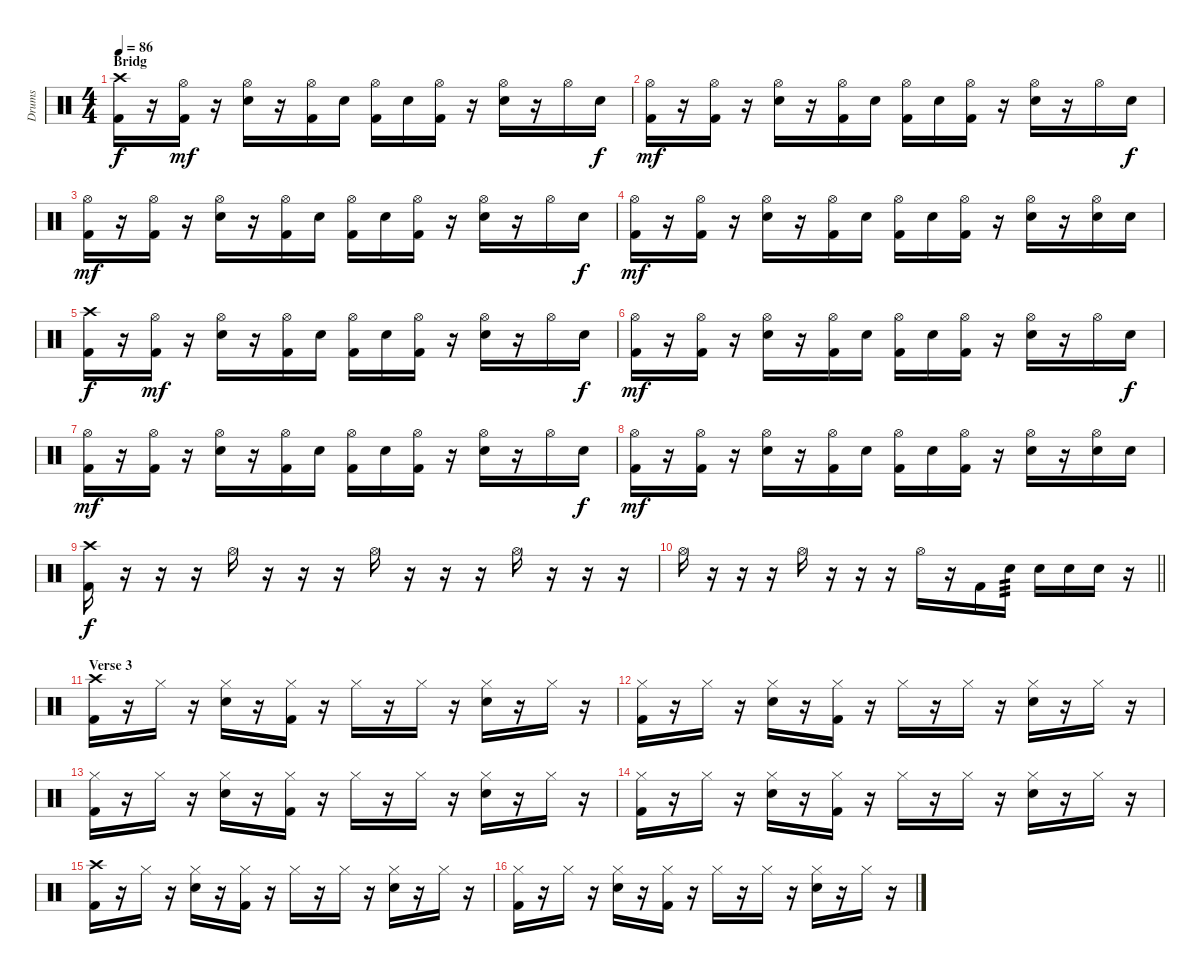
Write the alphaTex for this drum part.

\track ("Drums" "Drums") {instrument percussion}
\staff {score}
\articulation defaults
\ts (4 4)
\section ("" "Bridg")
\tempo 86
\clef neutral
\ks c
("Crash high (hit)" "Kick (hit) 2").16{dy f} r.16 ("Hi-Hat (open)" "Kick (hit) 2").16{dy mf} r.16 ("Hi-Hat (open)" "Electric Snare (hit)").16 r.16 ("Hi-Hat (open)" "Kick (hit) 2").16 "Electric Snare (hit)".16 ("Hi-Hat (open)" "Kick (hit) 2").16 "Electric Snare (hit)".16 ("Hi-Hat (open)" "Kick (hit) 2").16 r.16 ("Hi-Hat (open)" "Electric Snare (hit)").16 r.16 "Hi-Hat (open)".16 "Electric Snare (hit)".16{dy f} |
("Hi-Hat (open)" "Kick (hit) 2").16{dy mf} r.16 ("Hi-Hat (open)" "Kick (hit) 2").16 r.16 ("Hi-Hat (open)" "Electric Snare (hit)").16 r.16 ("Hi-Hat (open)" "Kick (hit) 2").16 "Electric Snare (hit)".16 ("Hi-Hat (open)" "Kick (hit) 2").16 "Electric Snare (hit)".16 ("Hi-Hat (open)" "Kick (hit) 2").16 r.16 ("Hi-Hat (open)" "Electric Snare (hit)").16 r.16 "Hi-Hat (open)".16 "Electric Snare (hit)".16{dy f} |
("Hi-Hat (open)" "Kick (hit) 2").16{dy mf} r.16 ("Hi-Hat (open)" "Kick (hit) 2").16 r.16 ("Hi-Hat (open)" "Electric Snare (hit)").16 r.16 ("Hi-Hat (open)" "Kick (hit) 2").16 "Electric Snare (hit)".16 ("Hi-Hat (open)" "Kick (hit) 2").16 "Electric Snare (hit)".16 ("Hi-Hat (open)" "Kick (hit) 2").16 r.16 ("Hi-Hat (open)" "Electric Snare (hit)").16 r.16 "Hi-Hat (open)".16 "Electric Snare (hit)".16{dy f} |
("Hi-Hat (open)" "Kick (hit) 2").16{dy mf} r.16 ("Hi-Hat (open)" "Kick (hit) 2").16 r.16 ("Hi-Hat (open)" "Electric Snare (hit)").16 r.16 ("Hi-Hat (open)" "Kick (hit) 2").16 "Electric Snare (hit)".16 ("Hi-Hat (open)" "Kick (hit) 2").16 "Electric Snare (hit)".16 ("Hi-Hat (open)" "Kick (hit) 2").16 r.16 ("Hi-Hat (open)" "Electric Snare (hit)").16 r.16 ("Hi-Hat (open)" "Electric Snare (hit)").16 "Electric Snare (hit)".16 |
("Crash high (hit)" "Kick (hit) 2").16{dy f} r.16 ("Hi-Hat (open)" "Kick (hit) 2").16{dy mf} r.16 ("Hi-Hat (open)" "Electric Snare (hit)").16 r.16 ("Hi-Hat (open)" "Kick (hit) 2").16 "Electric Snare (hit)".16 ("Hi-Hat (open)" "Kick (hit) 2").16 "Electric Snare (hit)".16 ("Hi-Hat (open)" "Kick (hit) 2").16 r.16 ("Hi-Hat (open)" "Electric Snare (hit)").16 r.16 "Hi-Hat (open)".16 "Electric Snare (hit)".16{dy f} |
("Hi-Hat (open)" "Kick (hit) 2").16{dy mf} r.16 ("Hi-Hat (open)" "Kick (hit) 2").16 r.16 ("Hi-Hat (open)" "Electric Snare (hit)").16 r.16 ("Hi-Hat (open)" "Kick (hit) 2").16 "Electric Snare (hit)".16 ("Hi-Hat (open)" "Kick (hit) 2").16 "Electric Snare (hit)".16 ("Hi-Hat (open)" "Kick (hit) 2").16 r.16 ("Hi-Hat (open)" "Electric Snare (hit)").16 r.16 "Hi-Hat (open)".16 "Electric Snare (hit)".16{dy f} |
("Hi-Hat (open)" "Kick (hit) 2").16{dy mf} r.16 ("Hi-Hat (open)" "Kick (hit) 2").16 r.16 ("Hi-Hat (open)" "Electric Snare (hit)").16 r.16 ("Hi-Hat (open)" "Kick (hit) 2").16 "Electric Snare (hit)".16 ("Hi-Hat (open)" "Kick (hit) 2").16 "Electric Snare (hit)".16 ("Hi-Hat (open)" "Kick (hit) 2").16 r.16 ("Hi-Hat (open)" "Electric Snare (hit)").16 r.16 "Hi-Hat (open)".16 "Electric Snare (hit)".16{dy f} |
("Hi-Hat (open)" "Kick (hit) 2").16{dy mf} r.16 ("Hi-Hat (open)" "Kick (hit) 2").16 r.16 ("Hi-Hat (open)" "Electric Snare (hit)").16 r.16 ("Hi-Hat (open)" "Kick (hit) 2").16 "Electric Snare (hit)".16 ("Hi-Hat (open)" "Kick (hit) 2").16 "Electric Snare (hit)".16 ("Hi-Hat (open)" "Kick (hit) 2").16 r.16 ("Hi-Hat (open)" "Electric Snare (hit)").16 r.16 ("Hi-Hat (open)" "Electric Snare (hit)").16 "Electric Snare (hit)".16 |
("Crash high (hit)" "Kick (hit) 2").16{dy f} r.16 r.16 r.16 "Hi-Hat (open)".16 r.16 r.16 r.16 "Hi-Hat (open)".16 r.16 r.16 r.16 "Hi-Hat (open)".16 r.16 r.16 r.16 |
\barLineRight lightlight "Hi-Hat (open)".16
r.16 r.16 r.16 "Hi-Hat (open)".16 r.16 r.16 r.16 "Hi-Hat (open)".16 r.16 "Kick (hit) 2".16 "Electric Snare (hit)".16{tp 3} "Electric Snare (hit)".16 "Electric Snare (hit)".16 "Electric Snare (hit)".16 r.16 |
\section ("" "Verse 3")
("Crash high (hit)" "Kick (hit) 2").16 r.16 "Hi-Hat (closed)".16 r.16 ("Hi-Hat (closed)" "Electric Snare (hit)").16 r.16 ("Hi-Hat (closed)" "Kick (hit) 2").16 r.16 "Hi-Hat (closed)".16 r.16 "Hi-Hat (closed)".16 r.16 ("Hi-Hat (closed)" "Electric Snare (hit)").16 r.16 "Hi-Hat (closed)".16 r.16 |
("Hi-Hat (closed)" "Kick (hit) 2").16 r.16 "Hi-Hat (closed)".16 r.16 ("Hi-Hat (closed)" "Electric Snare (hit)").16 r.16 ("Hi-Hat (closed)" "Kick (hit) 2").16 r.16 "Hi-Hat (closed)".16 r.16 "Hi-Hat (closed)".16 r.16 ("Hi-Hat (closed)" "Electric Snare (hit)").16 r.16 "Hi-Hat (closed)".16 r.16 |
("Hi-Hat (closed)" "Kick (hit) 2").16 r.16 "Hi-Hat (closed)".16 r.16 ("Hi-Hat (closed)" "Electric Snare (hit)").16 r.16 ("Hi-Hat (closed)" "Kick (hit) 2").16 r.16 "Hi-Hat (closed)".16 r.16 "Hi-Hat (closed)".16 r.16 ("Hi-Hat (closed)" "Electric Snare (hit)").16 r.16 "Hi-Hat (closed)".16 r.16 |
("Hi-Hat (closed)" "Kick (hit) 2").16 r.16 "Hi-Hat (closed)".16 r.16 ("Hi-Hat (closed)" "Electric Snare (hit)").16 r.16 ("Hi-Hat (closed)" "Kick (hit) 2").16 r.16 "Hi-Hat (closed)".16 r.16 "Hi-Hat (closed)".16 r.16 ("Hi-Hat (closed)" "Electric Snare (hit)").16 r.16 "Hi-Hat (closed)".16 r.16 |
("Crash high (hit)" "Kick (hit) 2").16 r.16 "Hi-Hat (closed)".16 r.16 ("Hi-Hat (closed)" "Electric Snare (hit)").16 r.16 ("Hi-Hat (closed)" "Kick (hit) 2").16 r.16 "Hi-Hat (closed)".16 r.16 "Hi-Hat (closed)".16 r.16 ("Hi-Hat (closed)" "Electric Snare (hit)").16 r.16 "Hi-Hat (closed)".16 r.16 |
("Hi-Hat (closed)" "Kick (hit) 2").16 r.16 "Hi-Hat (closed)".16 r.16 ("Hi-Hat (closed)" "Electric Snare (hit)").16 r.16 ("Hi-Hat (closed)" "Kick (hit) 2").16 r.16 "Hi-Hat (closed)".16 r.16 "Hi-Hat (closed)".16 r.16 ("Hi-Hat (closed)" "Electric Snare (hit)").16 r.16 "Hi-Hat (closed)".16 r.16
